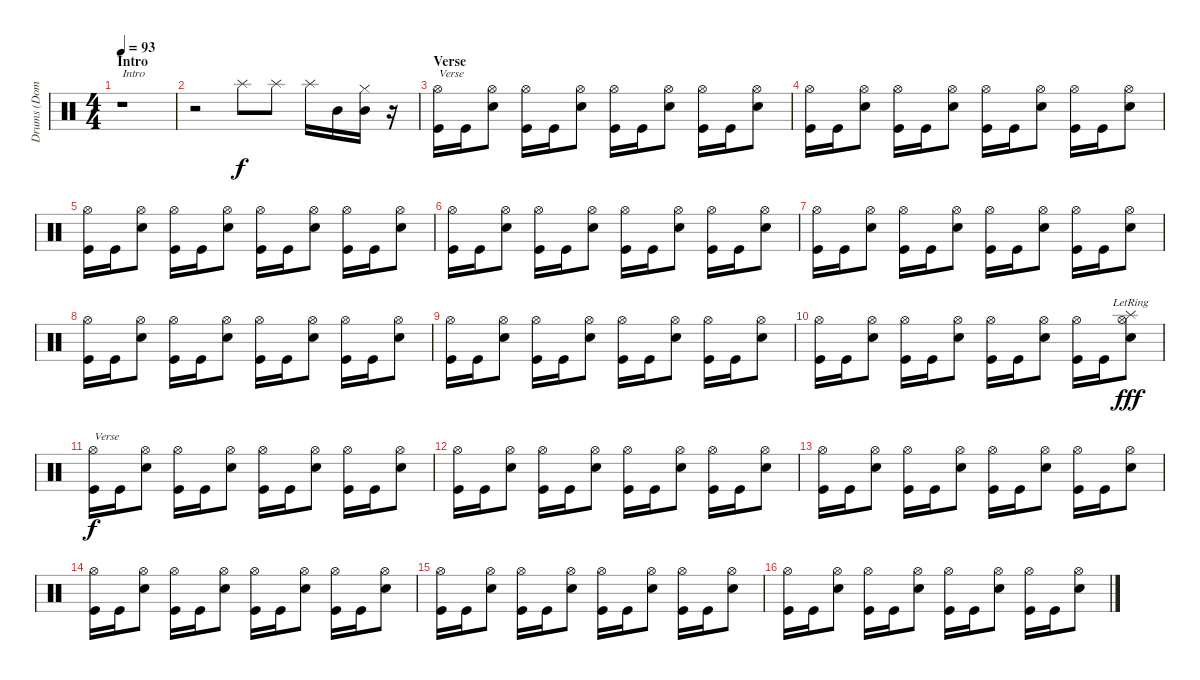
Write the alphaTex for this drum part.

\track ("Drums (Dominic Howard)" "Drums (Dom") {instrument percussion}
\staff {score}
\articulation defaults
\ts (4 4)
\section ("" "Intro")
\tempo 93
\clef neutral
\ks c
r.1{txt "Intro" dy f} |
r.2 "Splash (hit)".8 "Splash (hit)".8 "Splash (hit)".16 "Mid Tom (hit)".16 ("Hi-Hat (closed)" "Mid Tom (hit)").16 r.16 |
\section ("" "Verse")
("Hi-Hat (open)" "Kick (hit)").16{txt "Verse"} "Kick (hit)".16 ("Hi-Hat (open)" "Snare (hit) 2").8 ("Hi-Hat (open)" "Kick (hit)").16 "Kick (hit)".16 ("Hi-Hat (open)" "Snare (hit) 2").8 ("Hi-Hat (open)" "Kick (hit)").16 "Kick (hit)".16 ("Hi-Hat (open)" "Snare (hit) 2").8 ("Hi-Hat (open)" "Kick (hit)").16 "Kick (hit)".16 ("Hi-Hat (open)" "Snare (hit) 2").8 |
("Hi-Hat (open)" "Kick (hit)").16 "Kick (hit)".16 ("Hi-Hat (open)" "Snare (hit) 2").8 ("Hi-Hat (open)" "Kick (hit)").16 "Kick (hit)".16 ("Hi-Hat (open)" "Snare (hit) 2").8 ("Hi-Hat (open)" "Kick (hit)").16 "Kick (hit)".16 ("Hi-Hat (open)" "Snare (hit) 2").8 ("Hi-Hat (open)" "Kick (hit)").16 "Kick (hit)".16 ("Hi-Hat (open)" "Snare (hit) 2").8 |
("Hi-Hat (open)" "Kick (hit)").16 "Kick (hit)".16 ("Hi-Hat (open)" "Snare (hit) 2").8 ("Hi-Hat (open)" "Kick (hit)").16 "Kick (hit)".16 ("Hi-Hat (open)" "Snare (hit) 2").8 ("Hi-Hat (open)" "Kick (hit)").16 "Kick (hit)".16 ("Hi-Hat (open)" "Snare (hit) 2").8 ("Hi-Hat (open)" "Kick (hit)").16 "Kick (hit)".16 ("Hi-Hat (open)" "Snare (hit) 2").8 |
("Hi-Hat (open)" "Kick (hit)").16 "Kick (hit)".16 ("Hi-Hat (open)" "Snare (hit) 2").8 ("Hi-Hat (open)" "Kick (hit)").16 "Kick (hit)".16 ("Hi-Hat (open)" "Snare (hit) 2").8 ("Hi-Hat (open)" "Kick (hit)").16 "Kick (hit)".16 ("Hi-Hat (open)" "Snare (hit) 2").8 ("Hi-Hat (open)" "Kick (hit)").16 "Kick (hit)".16 ("Hi-Hat (open)" "Snare (hit) 2").8 |
("Hi-Hat (open)" "Kick (hit)").16 "Kick (hit)".16 ("Hi-Hat (open)" "Snare (hit) 2").8 ("Hi-Hat (open)" "Kick (hit)").16 "Kick (hit)".16 ("Hi-Hat (open)" "Snare (hit) 2").8 ("Hi-Hat (open)" "Kick (hit)").16 "Kick (hit)".16 ("Hi-Hat (open)" "Snare (hit) 2").8 ("Hi-Hat (open)" "Kick (hit)").16 "Kick (hit)".16 ("Hi-Hat (open)" "Snare (hit) 2").8 |
("Hi-Hat (open)" "Kick (hit)").16 "Kick (hit)".16 ("Hi-Hat (open)" "Snare (hit) 2").8 ("Hi-Hat (open)" "Kick (hit)").16 "Kick (hit)".16 ("Hi-Hat (open)" "Snare (hit) 2").8 ("Hi-Hat (open)" "Kick (hit)").16 "Kick (hit)".16 ("Hi-Hat (open)" "Snare (hit) 2").8 ("Hi-Hat (open)" "Kick (hit)").16 "Kick (hit)".16 ("Hi-Hat (open)" "Snare (hit) 2").8 |
("Hi-Hat (open)" "Kick (hit)").16 "Kick (hit)".16 ("Hi-Hat (open)" "Snare (hit) 2").8 ("Hi-Hat (open)" "Kick (hit)").16 "Kick (hit)".16 ("Hi-Hat (open)" "Snare (hit) 2").8 ("Hi-Hat (open)" "Kick (hit)").16 "Kick (hit)".16 ("Hi-Hat (open)" "Snare (hit) 2").8 ("Hi-Hat (open)" "Kick (hit)").16 "Kick (hit)".16 ("Hi-Hat (open)" "Snare (hit) 2").8 |
("Hi-Hat (open)" "Kick (hit)").16 "Kick (hit)".16 ("Hi-Hat (open)" "Snare (hit) 2").8 ("Hi-Hat (open)" "Kick (hit)").16 "Kick (hit)".16 ("Hi-Hat (open)" "Snare (hit) 2").8 ("Hi-Hat (open)" "Kick (hit)").16 "Kick (hit)".16 ("Hi-Hat (open)" "Snare (hit) 2").8 ("Hi-Hat (open)" "Kick (hit)").16 "Kick (hit)".16 ("Splash (hit)"{lr} "Hi-Hat (open)" "Snare (hit) 2").8{dy fff} |
("Hi-Hat (open)" "Kick (hit)").16{txt "Verse" dy f} "Kick (hit)".16 ("Hi-Hat (open)" "Snare (hit) 2").8 ("Hi-Hat (open)" "Kick (hit)").16 "Kick (hit)".16 ("Hi-Hat (open)" "Snare (hit) 2").8 ("Hi-Hat (open)" "Kick (hit)").16 "Kick (hit)".16 ("Hi-Hat (open)" "Snare (hit) 2").8 ("Hi-Hat (open)" "Kick (hit)").16 "Kick (hit)".16 ("Hi-Hat (open)" "Snare (hit) 2").8 |
("Hi-Hat (open)" "Kick (hit)").16 "Kick (hit)".16 ("Hi-Hat (open)" "Snare (hit) 2").8 ("Hi-Hat (open)" "Kick (hit)").16 "Kick (hit)".16 ("Hi-Hat (open)" "Snare (hit) 2").8 ("Hi-Hat (open)" "Kick (hit)").16 "Kick (hit)".16 ("Hi-Hat (open)" "Snare (hit) 2").8 ("Hi-Hat (open)" "Kick (hit)").16 "Kick (hit)".16 ("Hi-Hat (open)" "Snare (hit) 2").8 |
("Hi-Hat (open)" "Kick (hit)").16 "Kick (hit)".16 ("Hi-Hat (open)" "Snare (hit) 2").8 ("Hi-Hat (open)" "Kick (hit)").16 "Kick (hit)".16 ("Hi-Hat (open)" "Snare (hit) 2").8 ("Hi-Hat (open)" "Kick (hit)").16 "Kick (hit)".16 ("Hi-Hat (open)" "Snare (hit) 2").8 ("Hi-Hat (open)" "Kick (hit)").16 "Kick (hit)".16 ("Hi-Hat (open)" "Snare (hit) 2").8 |
("Hi-Hat (open)" "Kick (hit)").16 "Kick (hit)".16 ("Hi-Hat (open)" "Snare (hit) 2").8 ("Hi-Hat (open)" "Kick (hit)").16 "Kick (hit)".16 ("Hi-Hat (open)" "Snare (hit) 2").8 ("Hi-Hat (open)" "Kick (hit)").16 "Kick (hit)".16 ("Hi-Hat (open)" "Snare (hit) 2").8 ("Hi-Hat (open)" "Kick (hit)").16 "Kick (hit)".16 ("Hi-Hat (open)" "Snare (hit) 2").8 |
("Hi-Hat (open)" "Kick (hit)").16 "Kick (hit)".16 ("Hi-Hat (open)" "Snare (hit) 2").8 ("Hi-Hat (open)" "Kick (hit)").16 "Kick (hit)".16 ("Hi-Hat (open)" "Snare (hit) 2").8 ("Hi-Hat (open)" "Kick (hit)").16 "Kick (hit)".16 ("Hi-Hat (open)" "Snare (hit) 2").8 ("Hi-Hat (open)" "Kick (hit)").16 "Kick (hit)".16 ("Hi-Hat (open)" "Snare (hit) 2").8 |
("Hi-Hat (open)" "Kick (hit)").16 "Kick (hit)".16 ("Hi-Hat (open)" "Snare (hit) 2").8 ("Hi-Hat (open)" "Kick (hit)").16 "Kick (hit)".16 ("Hi-Hat (open)" "Snare (hit) 2").8 ("Hi-Hat (open)" "Kick (hit)").16 "Kick (hit)".16 ("Hi-Hat (open)" "Snare (hit) 2").8 ("Hi-Hat (open)" "Kick (hit)").16 "Kick (hit)".16 ("Hi-Hat (open)" "Snare (hit) 2").8
